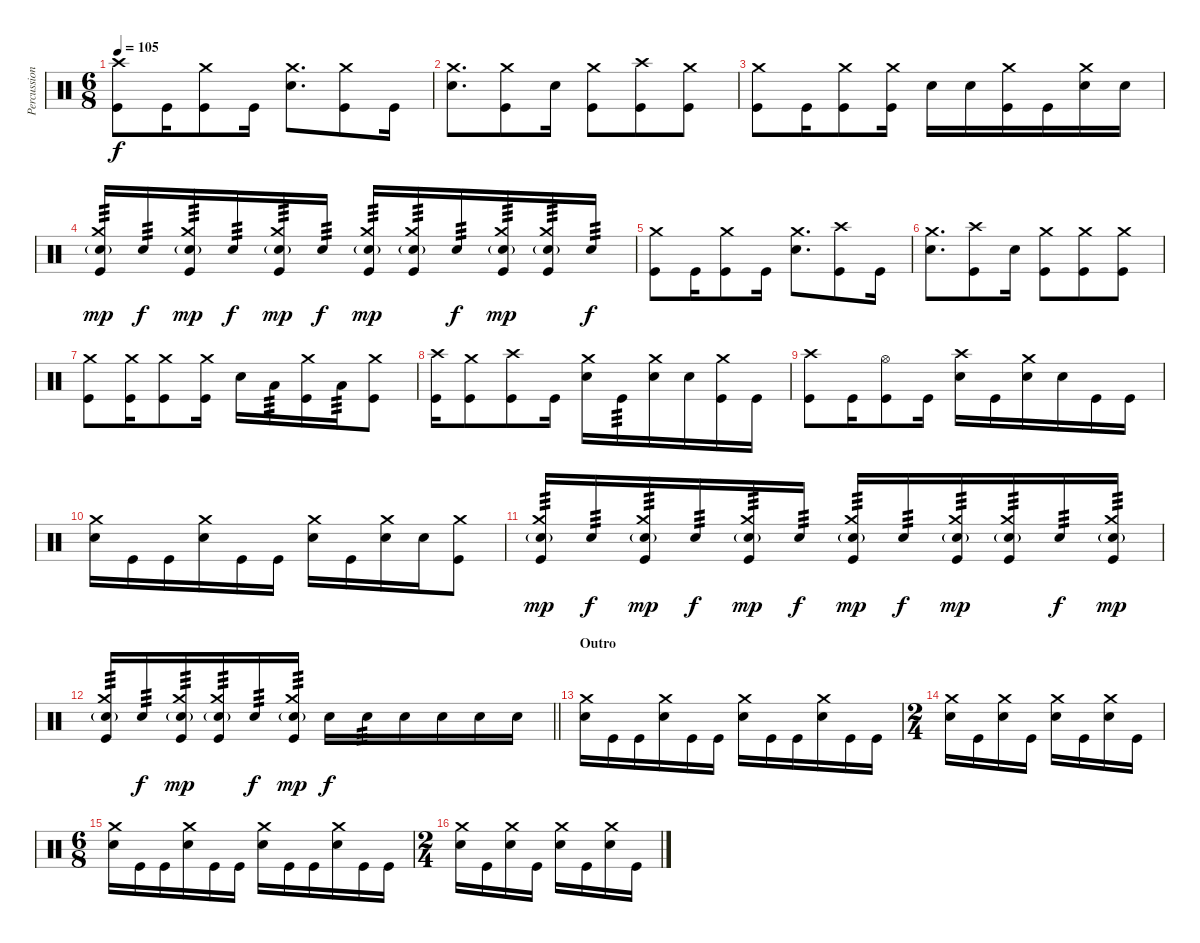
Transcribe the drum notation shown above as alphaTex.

\track ("Percussion" "Percussion") {instrument percussion}
\staff {score}
\articulation defaults
\ts (6 8)
\tempo 105
\clef neutral
\ks c
("Crash high (hit)" "Kick (hit)").8{dy f} "Kick (hit)".16 ("Crash medium (hit)" "Kick (hit)").8 "Kick (hit)".16 ("Crash medium (hit)" "Snare (hit) 2").8{d} ("Crash medium (hit)" "Kick (hit)").8 "Kick (hit)".16 |
("Crash medium (hit)" "Snare (hit) 2").8{d} ("Crash medium (hit)" "Kick (hit)").8 "Snare (hit) 2".16 ("Crash medium (hit)" "Kick (hit)").8 ("Crash high (hit)" "Kick (hit)").8 ("Crash medium (hit)" "Kick (hit)").8 |
("Crash medium (hit)" "Kick (hit)").8 "Kick (hit)".16 ("Crash medium (hit)" "Kick (hit)").8 ("Crash medium (hit)" "Kick (hit)").16 "Snare (hit) 2".16 "Snare (hit) 2".16 ("Crash medium (hit)" "Kick (hit)").16 "Kick (hit)".16 ("Crash medium (hit)" "Snare (hit) 2").16 "Snare (hit) 2".16 |
("Crash medium (hit)" "Snare (hit) 2"{g} "Kick (hit)").16{tp 3 dy mp} "Snare (hit) 2".16{tp 3 dy f} ("Crash medium (hit)" "Snare (hit) 2"{g} "Kick (hit)").16{tp 3 dy mp} "Snare (hit) 2".16{tp 3 dy f} ("Crash medium (hit)" "Snare (hit) 2"{g} "Kick (hit)").16{tp 3 dy mp} "Snare (hit) 2".16{tp 3 dy f} ("Crash medium (hit)" "Snare (hit) 2"{g} "Kick (hit)").16{tp 3 dy mp} ("Crash medium (hit)" "Snare (hit) 2"{g} "Kick (hit)").16{tp 3} "Snare (hit) 2".16{tp 3 dy f} ("Crash medium (hit)" "Snare (hit) 2"{g} "Kick (hit)").16{tp 3 dy mp} ("Crash medium (hit)" "Snare (hit) 2"{g} "Kick (hit)").16{tp 3} "Snare (hit) 2".16{tp 3 dy f} |
("Crash medium (hit)" "Kick (hit)").8 "Kick (hit)".16 ("Crash medium (hit)" "Kick (hit)").8 "Kick (hit)".16 ("Crash medium (hit)" "Snare (hit) 2").8{d} ("Crash high (hit)" "Kick (hit)").8 "Kick (hit)".16 |
("Crash medium (hit)" "Snare (hit) 2").8{d} ("Crash high (hit)" "Kick (hit)").8 "Snare (hit) 2".16 ("Crash medium (hit)" "Kick (hit)").8 ("Crash medium (hit)" "Kick (hit)").8 ("Crash medium (hit)" "Kick (hit)").8 |
("Crash medium (hit)" "Kick (hit)").8 ("Crash medium (hit)" "Kick (hit)").16 ("Crash medium (hit)" "Kick (hit)").8 ("Crash medium (hit)" "Kick (hit)").16 "Snare (hit) 2".16 "Low Floor Tom (hit)".16{tp 3} ("Crash medium (hit)" "Kick (hit)").16 "Low Floor Tom (hit)".16{tp 3} ("Crash medium (hit)" "Kick (hit)").8 |
("Crash high (hit)" "Kick (hit)").16 ("Crash medium (hit)" "Kick (hit)").8 ("Crash high (hit)" "Kick (hit)").8 "Kick (hit)".16 ("Crash medium (hit)" "Snare (hit) 2").16 "Kick (hit)".16{tp 3} ("Crash medium (hit)" "Snare (hit) 2").16 "Snare (hit) 2".16 ("Crash medium (hit)" "Kick (hit)").16 "Kick (hit)".16 |
("Crash high (hit)" "Kick (hit)").8 "Kick (hit)".16 ("Hi-Hat (open)" "Kick (hit)").8 "Kick (hit)".16 ("Crash high (hit)" "Snare (hit) 2").16 "Kick (hit)".16 ("Crash medium (hit)" "Snare (hit) 2").16 "Snare (hit) 2".16 "Kick (hit)".16 "Kick (hit)".16 |
("Crash medium (hit)" "Snare (hit) 2").16 "Kick (hit)".16 "Kick (hit)".16 ("Crash medium (hit)" "Snare (hit) 2").16 "Kick (hit)".16 "Kick (hit)".16 ("Crash medium (hit)" "Snare (hit) 2").16 "Kick (hit)".16 ("Crash medium (hit)" "Snare (hit) 2").16 "Snare (hit) 2".16 ("Crash medium (hit)" "Kick (hit)").8 |
("Crash medium (hit)" "Snare (hit) 2"{g} "Kick (hit)").16{tp 3 dy mp} "Snare (hit) 2".16{tp 3 dy f} ("Crash medium (hit)" "Snare (hit) 2"{g} "Kick (hit)").16{tp 3 dy mp} "Snare (hit) 2".16{tp 3 dy f} ("Crash medium (hit)" "Snare (hit) 2"{g} "Kick (hit)").16{tp 3 dy mp} "Snare (hit) 2".16{tp 3 dy f} ("Crash medium (hit)" "Snare (hit) 2"{g} "Kick (hit)").16{tp 3 dy mp} "Snare (hit) 2".16{tp 3 dy f} ("Crash medium (hit)" "Snare (hit) 2"{g} "Kick (hit)").16{tp 3 dy mp} ("Crash medium (hit)" "Snare (hit) 2"{g} "Kick (hit)").16{tp 3} "Snare (hit) 2".16{tp 3 dy f} ("Crash medium (hit)" "Snare (hit) 2"{g} "Kick (hit)").16{tp 3 dy mp} |
\barLineRight lightlight
("Crash medium (hit)" "Snare (hit) 2"{g} "Kick (hit)").16{tp 3} "Snare (hit) 2".16{tp 3 dy f} ("Crash medium (hit)" "Snare (hit) 2"{g} "Kick (hit)").16{tp 3 dy mp} ("Crash medium (hit)" "Snare (hit) 2"{g} "Kick (hit)").16{tp 3} "Snare (hit) 2".16{tp 3 dy f} ("Crash medium (hit)" "Snare (hit) 2"{g} "Kick (hit)").16{tp 3 dy mp} "Snare (hit) 2".16{dy f} "Snare (hit) 2".16{tp 3} "Snare (hit) 2".16 "Snare (hit) 2".16 "Snare (hit) 2".16 "Snare (hit) 2".16 |
\section ("" "Outro")
("Crash medium (hit)" "Snare (hit) 2").16 "Kick (hit)".16 "Kick (hit)".16 ("Crash medium (hit)" "Snare (hit) 2").16 "Kick (hit)".16 "Kick (hit)".16 ("Crash medium (hit)" "Snare (hit) 2").16 "Kick (hit)".16 "Kick (hit)".16 ("Crash medium (hit)" "Snare (hit) 2").16 "Kick (hit)".16 "Kick (hit)".16 |
\ts (2 4)
("Crash medium (hit)" "Snare (hit) 2").16 "Kick (hit)".16 ("Crash medium (hit)" "Snare (hit) 2").16 "Kick (hit)".16 ("Crash medium (hit)" "Snare (hit) 2").16 "Kick (hit)".16 ("Crash medium (hit)" "Snare (hit) 2").16 "Kick (hit)".16 |
\ts (6 8)
("Crash medium (hit)" "Snare (hit) 2").16 "Kick (hit)".16 "Kick (hit)".16 ("Crash medium (hit)" "Snare (hit) 2").16 "Kick (hit)".16 "Kick (hit)".16 ("Crash medium (hit)" "Snare (hit) 2").16 "Kick (hit)".16 "Kick (hit)".16 ("Crash medium (hit)" "Snare (hit) 2").16 "Kick (hit)".16 "Kick (hit)".16 |
\ts (2 4)
("Crash medium (hit)" "Snare (hit) 2").16 "Kick (hit)".16 ("Crash medium (hit)" "Snare (hit) 2").16 "Kick (hit)".16 ("Crash medium (hit)" "Snare (hit) 2").16 "Kick (hit)".16 ("Crash medium (hit)" "Snare (hit) 2").16 "Kick (hit)".16
